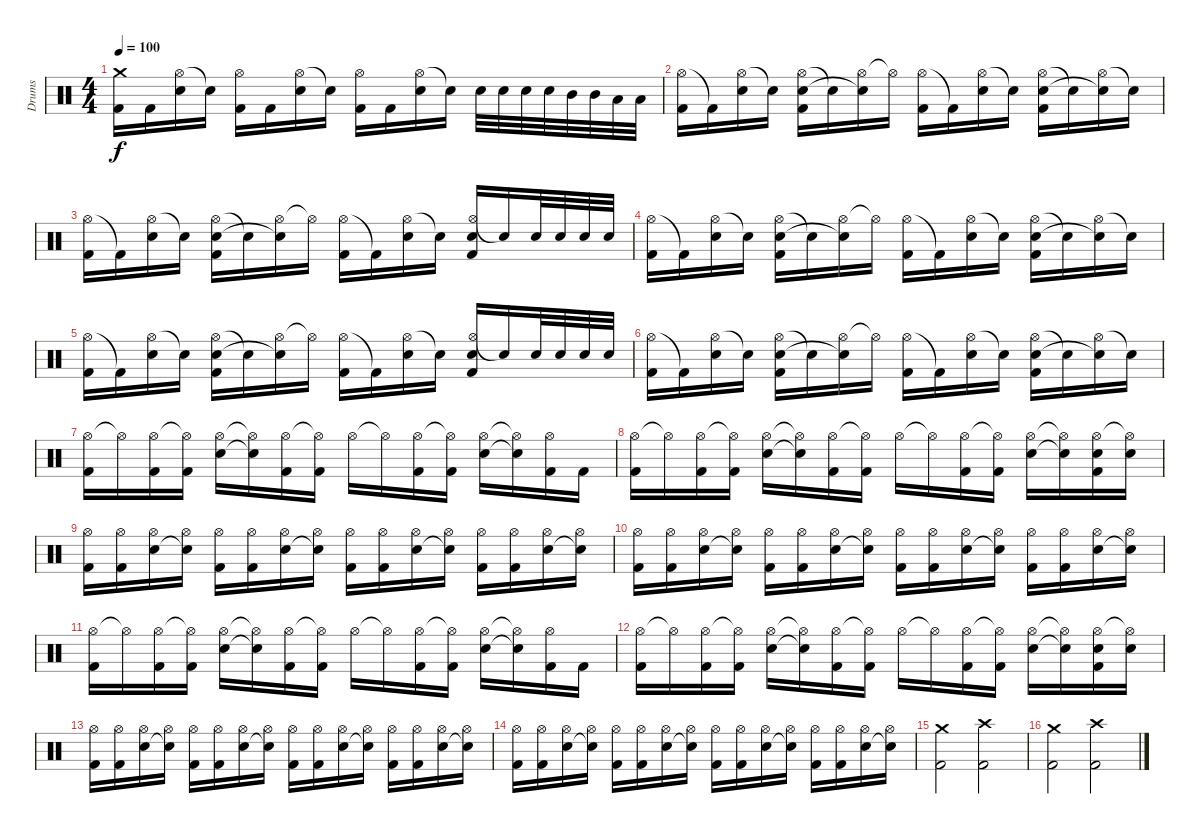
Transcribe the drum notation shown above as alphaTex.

\track ("Drums" "Drums") {instrument percussion}
\staff {score}
\articulation defaults
\ts (4 4)
\tempo 100
\clef neutral
\ks c
("Crash medium (hit)" "Kick (hit) 2").16{dy f} "Kick (hit) 2".16 ("Hi-Hat (open)" "Electric Snare (hit)").16 "Electric Snare (hit)"{t}.16 ("Hi-Hat (open)" "Kick (hit) 2").16 "Kick (hit) 2".16 ("Hi-Hat (open)" "Electric Snare (hit)").16 "Electric Snare (hit)"{t}.16 ("Hi-Hat (open)" "Kick (hit) 2").16 "Kick (hit) 2".16 ("Hi-Hat (open)" "Electric Snare (hit)").16 "Snare (hit)"{t}.16 "Electric Snare (hit)".32 "Electric Snare (hit)".32 "Electric Snare (hit)".32 "Electric Snare (hit)".32 "Mid Tom (hit)".32 "Mid Tom (hit)".32 "Low Tom (hit)".32 "Low Tom (hit)".32 |
("Hi-Hat (open)" "Kick (hit) 2").16 "Kick (hit) 2"{t}.16 ("Hi-Hat (open)" "Electric Snare (hit)").16 "Electric Snare (hit)"{t}.16 ("Hi-Hat (open)" "Electric Snare (hit)" "Kick (hit) 2").16 "Snare (hit)"{t}.16 ("Hi-Hat (open)" "Electric Snare (hit)"{t}).16 "Hi-Hat (open)"{t}.16 ("Hi-Hat (open)" "Kick (hit) 2").16 "Kick (hit) 2"{t}.16 ("Hi-Hat (open)" "Electric Snare (hit)").16 "Snare (hit)"{t}.16 ("Hi-Hat (open)" "Electric Snare (hit)" "Kick (hit) 2").16 "Snare (hit)"{t}.16 ("Hi-Hat (open)" "Electric Snare (hit)"{t}).16 "Snare (hit)"{t}.16 |
("Hi-Hat (open)" "Kick (hit) 2").16 "Kick (hit) 2"{t}.16 ("Hi-Hat (open)" "Electric Snare (hit)").16 "Electric Snare (hit)"{t}.16 ("Hi-Hat (open)" "Electric Snare (hit)" "Kick (hit) 2").16 "Snare (hit)"{t}.16 ("Hi-Hat (open)" "Electric Snare (hit)"{t}).16 "Hi-Hat (open)"{t}.16 ("Hi-Hat (open)" "Kick (hit) 2").16 "Kick (hit) 2"{t}.16 ("Hi-Hat (open)" "Electric Snare (hit)").16 "Snare (hit)"{t}.16 ("Hi-Hat (open)" "Electric Snare (hit)" "Kick (hit) 2").16 "Electric Snare (hit)"{t}.16 "Electric Snare (hit)".32 "Electric Snare (hit)".32 "Electric Snare (hit)".32 "Electric Snare (hit)".32 |
("Hi-Hat (open)" "Kick (hit) 2").16 "Kick (hit) 2"{t}.16 ("Hi-Hat (open)" "Electric Snare (hit)").16 "Electric Snare (hit)"{t}.16 ("Hi-Hat (open)" "Electric Snare (hit)" "Kick (hit) 2").16 "Snare (hit)"{t}.16 ("Hi-Hat (open)" "Electric Snare (hit)"{t}).16 "Hi-Hat (open)"{t}.16 ("Hi-Hat (open)" "Kick (hit) 2").16 "Kick (hit) 2"{t}.16 ("Hi-Hat (open)" "Electric Snare (hit)").16 "Snare (hit)"{t}.16 ("Hi-Hat (open)" "Electric Snare (hit)" "Kick (hit) 2").16 "Snare (hit)"{t}.16 ("Hi-Hat (open)" "Electric Snare (hit)"{t}).16 "Snare (hit)"{t}.16 |
("Hi-Hat (open)" "Kick (hit) 2").16 "Kick (hit) 2"{t}.16 ("Hi-Hat (open)" "Electric Snare (hit)").16 "Electric Snare (hit)"{t}.16 ("Hi-Hat (open)" "Electric Snare (hit)" "Kick (hit) 2").16 "Snare (hit)"{t}.16 ("Hi-Hat (open)" "Electric Snare (hit)"{t}).16 "Hi-Hat (open)"{t}.16 ("Hi-Hat (open)" "Kick (hit) 2").16 "Kick (hit) 2"{t}.16 ("Hi-Hat (open)" "Electric Snare (hit)").16 "Snare (hit)"{t}.16 ("Hi-Hat (open)" "Electric Snare (hit)" "Kick (hit) 2").16 "Electric Snare (hit)"{t}.16 "Electric Snare (hit)".32 "Electric Snare (hit)".32 "Electric Snare (hit)".32 "Electric Snare (hit)".32 |
("Hi-Hat (open)" "Kick (hit) 2").16 "Kick (hit) 2"{t}.16 ("Hi-Hat (open)" "Electric Snare (hit)").16 "Electric Snare (hit)"{t}.16 ("Hi-Hat (open)" "Electric Snare (hit)" "Kick (hit) 2").16 "Snare (hit)"{t}.16 ("Hi-Hat (open)" "Electric Snare (hit)"{t}).16 "Hi-Hat (open)"{t}.16 ("Hi-Hat (open)" "Kick (hit) 2").16 "Kick (hit) 2"{t}.16 ("Hi-Hat (open)" "Electric Snare (hit)").16 "Snare (hit)"{t}.16 ("Hi-Hat (open)" "Electric Snare (hit)" "Kick (hit) 2").16 "Snare (hit)"{t}.16 ("Hi-Hat (open)" "Electric Snare (hit)"{t}).16 "Snare (hit)"{t}.16 |
("Hi-Hat (open)" "Kick (hit) 2").16 "Hi-Hat (open)"{t}.16 ("Hi-Hat (open)" "Kick (hit) 2").16 ("Hi-Hat (open)"{t} "Kick (hit) 2").16 ("Hi-Hat (open)" "Electric Snare (hit)").16 ("Hi-Hat (open)"{t} "Snare (hit)"{t}).16 ("Hi-Hat (open)" "Kick (hit) 2").16 ("Hi-Hat (open)"{t} "Kick (hit) 2").16 "Hi-Hat (open)".16 "Hi-Hat (open)"{t}.16 ("Hi-Hat (open)" "Kick (hit) 2").16 ("Hi-Hat (open)"{t} "Kick (hit) 2").16 ("Hi-Hat (open)" "Electric Snare (hit)").16 ("Hi-Hat (open)"{t} "Snare (hit)"{t}).16 ("Hi-Hat (open)" "Kick (hit) 2").16 "Kick (hit) 2".16 |
("Hi-Hat (open)" "Kick (hit) 2").16 "Hi-Hat (open)"{t}.16 ("Hi-Hat (open)" "Kick (hit) 2").16 ("Hi-Hat (open)"{t} "Kick (hit) 2").16 ("Hi-Hat (open)" "Electric Snare (hit)").16 ("Hi-Hat (open)"{t} "Snare (hit)"{t}).16 ("Hi-Hat (open)" "Kick (hit) 2").16 ("Hi-Hat (open)"{t} "Kick (hit) 2").16 "Hi-Hat (open)".16 "Hi-Hat (open)"{t}.16 ("Hi-Hat (open)" "Kick (hit) 2").16 ("Hi-Hat (open)"{t} "Kick (hit) 2").16 ("Hi-Hat (open)" "Electric Snare (hit)").16 ("Hi-Hat (open)"{t} "Snare (hit)"{t}).16 ("Hi-Hat (open)" "Electric Snare (hit)" "Kick (hit) 2").16 ("Hi-Hat (open)"{t} "Electric Snare (hit)").16 |
("Hi-Hat (open)" "Kick (hit) 2").16 ("Hi-Hat (open)" "Kick (hit) 2").16 ("Hi-Hat (open)" "Electric Snare (hit)").16 ("Hi-Hat (open)" "Snare (hit)"{t}).16 ("Hi-Hat (open)" "Kick (hit) 2").16 ("Hi-Hat (open)" "Kick (hit) 2").16 ("Hi-Hat (open)" "Electric Snare (hit)").16 ("Hi-Hat (open)" "Snare (hit)"{t}).16 ("Hi-Hat (open)" "Kick (hit) 2").16 ("Hi-Hat (open)" "Kick (hit) 2").16 ("Hi-Hat (open)" "Electric Snare (hit)").16 ("Hi-Hat (open)" "Snare (hit)"{t}).16 ("Hi-Hat (open)" "Kick (hit) 2").16 ("Hi-Hat (open)" "Kick (hit) 2").16 ("Hi-Hat (open)" "Electric Snare (hit)").16 ("Hi-Hat (open)" "Electric Snare (hit)"{t}).16 |
("Hi-Hat (open)" "Kick (hit) 2").16 ("Hi-Hat (open)" "Kick (hit) 2").16 ("Hi-Hat (open)" "Electric Snare (hit)").16 ("Hi-Hat (open)" "Snare (hit)"{t}).16 ("Hi-Hat (open)" "Kick (hit) 2").16 ("Hi-Hat (open)" "Kick (hit) 2").16 ("Hi-Hat (open)" "Electric Snare (hit)").16 ("Hi-Hat (open)" "Snare (hit)"{t}).16 ("Hi-Hat (open)" "Kick (hit) 2").16 ("Hi-Hat (open)" "Kick (hit) 2").16 ("Hi-Hat (open)" "Electric Snare (hit)").16 ("Hi-Hat (open)" "Snare (hit)"{t}).16 ("Hi-Hat (open)" "Kick (hit) 2").16 ("Hi-Hat (open)" "Kick (hit) 2").16 ("Hi-Hat (open)" "Electric Snare (hit)").16 ("Hi-Hat (open)" "Electric Snare (hit)"{t}).16 |
("Hi-Hat (open)" "Kick (hit) 2").16 "Hi-Hat (open)"{t}.16 ("Hi-Hat (open)" "Kick (hit) 2").16 ("Hi-Hat (open)"{t} "Kick (hit) 2").16 ("Hi-Hat (open)" "Electric Snare (hit)").16 ("Hi-Hat (open)"{t} "Snare (hit)"{t}).16 ("Hi-Hat (open)" "Kick (hit) 2").16 ("Hi-Hat (open)"{t} "Kick (hit) 2").16 "Hi-Hat (open)".16 "Hi-Hat (open)"{t}.16 ("Hi-Hat (open)" "Kick (hit) 2").16 ("Hi-Hat (open)"{t} "Kick (hit) 2").16 ("Hi-Hat (open)" "Electric Snare (hit)").16 ("Hi-Hat (open)"{t} "Snare (hit)"{t}).16 ("Hi-Hat (open)" "Kick (hit) 2").16 "Kick (hit) 2".16 |
("Hi-Hat (open)" "Kick (hit) 2").16 "Hi-Hat (open)"{t}.16 ("Hi-Hat (open)" "Kick (hit) 2").16 ("Hi-Hat (open)"{t} "Kick (hit) 2").16 ("Hi-Hat (open)" "Electric Snare (hit)").16 ("Hi-Hat (open)"{t} "Snare (hit)"{t}).16 ("Hi-Hat (open)" "Kick (hit) 2").16 ("Hi-Hat (open)"{t} "Kick (hit) 2").16 "Hi-Hat (open)".16 "Hi-Hat (open)"{t}.16 ("Hi-Hat (open)" "Kick (hit) 2").16 ("Hi-Hat (open)"{t} "Kick (hit) 2").16 ("Hi-Hat (open)" "Electric Snare (hit)").16 ("Hi-Hat (open)"{t} "Snare (hit)"{t}).16 ("Hi-Hat (open)" "Electric Snare (hit)" "Kick (hit) 2").16 ("Hi-Hat (open)"{t} "Electric Snare (hit)").16 |
("Hi-Hat (open)" "Kick (hit) 2").16 ("Hi-Hat (open)" "Kick (hit) 2").16 ("Hi-Hat (open)" "Electric Snare (hit)").16 ("Hi-Hat (open)" "Snare (hit)"{t}).16 ("Hi-Hat (open)" "Kick (hit) 2").16 ("Hi-Hat (open)" "Kick (hit) 2").16 ("Hi-Hat (open)" "Electric Snare (hit)").16 ("Hi-Hat (open)" "Snare (hit)"{t}).16 ("Hi-Hat (open)" "Kick (hit) 2").16 ("Hi-Hat (open)" "Kick (hit) 2").16 ("Hi-Hat (open)" "Electric Snare (hit)").16 ("Hi-Hat (open)" "Snare (hit)"{t}).16 ("Hi-Hat (open)" "Kick (hit) 2").16 ("Hi-Hat (open)" "Kick (hit) 2").16 ("Hi-Hat (open)" "Electric Snare (hit)").16 ("Hi-Hat (open)" "Electric Snare (hit)"{t}).16 |
("Hi-Hat (open)" "Kick (hit) 2").16 ("Hi-Hat (open)" "Kick (hit) 2").16 ("Hi-Hat (open)" "Electric Snare (hit)").16 ("Hi-Hat (open)" "Snare (hit)"{t}).16 ("Hi-Hat (open)" "Kick (hit) 2").16 ("Hi-Hat (open)" "Kick (hit) 2").16 ("Hi-Hat (open)" "Electric Snare (hit)").16 ("Hi-Hat (open)" "Snare (hit)"{t}).16 ("Hi-Hat (open)" "Kick (hit) 2").16 ("Hi-Hat (open)" "Kick (hit) 2").16 ("Hi-Hat (open)" "Electric Snare (hit)").16 ("Hi-Hat (open)" "Snare (hit)"{t}).16 ("Hi-Hat (open)" "Kick (hit) 2").16 ("Hi-Hat (open)" "Kick (hit) 2").16 ("Hi-Hat (open)" "Electric Snare (hit)").16 ("Hi-Hat (open)" "Electric Snare (hit)"{t}).16 |
("Crash medium (hit)" "Kick (hit) 2").2 ("Crash high (hit)" "Kick (hit) 2").2 |
("Crash medium (hit)" "Kick (hit) 2").2 ("Crash high (hit)" "Kick (hit) 2").2
